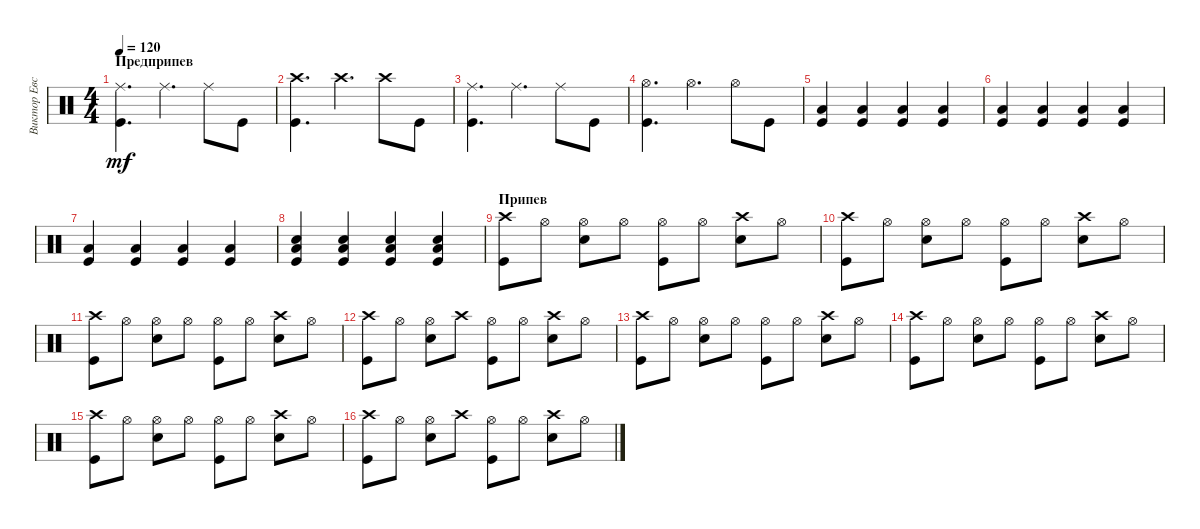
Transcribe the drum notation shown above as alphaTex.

\track ("Виктор Евстратов" "Виктор Евс") {instrument percussion}
\staff {score}
\articulation defaults
\ts (4 4)
\section ("" "Предприпев")
\tempo 120
\clef neutral
\ks c
("Ride (middle)" "Kick (hit)").4{d dy mf} "Ride (middle)".4{d} "Ride (middle)".8 "Kick (hit)".8 |
("Kick (hit)" "Crash high (hit)").4{d} "Crash high (hit)".4{d} "Crash high (hit)".8 "Kick (hit)".8 |
("Ride (middle)" "Kick (hit)").4{d} "Ride (middle)".4{d} "Ride (middle)".8 "Kick (hit)".8 |
("Kick (hit)" "Hi-Hat (open)").4{d} "Hi-Hat (open)".4{d} "Hi-Hat (open)".8 "Kick (hit)".8 |
("Kick (hit)" "Low Floor Tom (hit)").4 ("Kick (hit)" "Low Floor Tom (hit)").4 ("Kick (hit)" "Low Floor Tom (hit)").4 ("Kick (hit)" "Low Floor Tom (hit)").4 |
("Kick (hit)" "Low Floor Tom (hit)").4 ("Kick (hit)" "Low Floor Tom (hit)").4 ("Kick (hit)" "Low Floor Tom (hit)").4 ("Kick (hit)" "Low Floor Tom (hit)").4 |
("Kick (hit)" "Low Floor Tom (hit)").4 ("Kick (hit)" "Low Floor Tom (hit)").4 ("Kick (hit)" "Low Floor Tom (hit)").4 ("Kick (hit)" "Low Floor Tom (hit)").4 |
("Kick (hit)" "Low Floor Tom (hit)" "Snare (hit) 2").4 ("Kick (hit)" "Low Floor Tom (hit)" "Snare (hit) 2").4 ("Kick (hit)" "Low Floor Tom (hit)" "Snare (hit) 2").4 ("Kick (hit)" "Low Floor Tom (hit)" "Snare (hit) 2").4 |
\section ("" "Припев")
("Kick (hit)" "Crash high (hit)").8 "Hi-Hat (open)".8 ("Snare (hit) 2" "Hi-Hat (open)").8 "Hi-Hat (open)".8 ("Kick (hit)" "Hi-Hat (open)").8 "Hi-Hat (open)".8 ("Snare (hit) 2" "Crash high (hit)").8 "Hi-Hat (open)".8 |
("Kick (hit)" "Crash high (hit)").8 "Hi-Hat (open)".8 ("Snare (hit) 2" "Hi-Hat (open)").8 "Hi-Hat (open)".8 ("Kick (hit)" "Hi-Hat (open)").8 "Hi-Hat (open)".8 ("Snare (hit) 2" "Crash high (hit)").8 "Hi-Hat (open)".8 |
("Kick (hit)" "Crash high (hit)").8 "Hi-Hat (open)".8 ("Snare (hit) 2" "Hi-Hat (open)").8 "Hi-Hat (open)".8 ("Kick (hit)" "Hi-Hat (open)").8 "Hi-Hat (open)".8 ("Snare (hit) 2" "Crash high (hit)").8 "Hi-Hat (open)".8 |
("Kick (hit)" "Crash high (hit)").8 "Hi-Hat (open)".8 ("Snare (hit) 2" "Hi-Hat (open)").8 "Crash high (hit)".8 ("Kick (hit)" "Hi-Hat (open)").8 "Hi-Hat (open)".8 ("Snare (hit) 2" "Crash high (hit)").8 "Hi-Hat (open)".8 |
("Kick (hit)" "Crash high (hit)").8 "Hi-Hat (open)".8 ("Snare (hit) 2" "Hi-Hat (open)").8 "Hi-Hat (open)".8 ("Kick (hit)" "Hi-Hat (open)").8 "Hi-Hat (open)".8 ("Snare (hit) 2" "Crash high (hit)").8 "Hi-Hat (open)".8 |
("Kick (hit)" "Crash high (hit)").8 "Hi-Hat (open)".8 ("Snare (hit) 2" "Hi-Hat (open)").8 "Hi-Hat (open)".8 ("Kick (hit)" "Hi-Hat (open)").8 "Hi-Hat (open)".8 ("Snare (hit) 2" "Crash high (hit)").8 "Hi-Hat (open)".8 |
("Kick (hit)" "Crash high (hit)").8 "Hi-Hat (open)".8 ("Snare (hit) 2" "Hi-Hat (open)").8 "Hi-Hat (open)".8 ("Kick (hit)" "Hi-Hat (open)").8 "Hi-Hat (open)".8 ("Snare (hit) 2" "Crash high (hit)").8 "Hi-Hat (open)".8 |
("Kick (hit)" "Crash high (hit)").8 "Hi-Hat (open)".8 ("Snare (hit) 2" "Hi-Hat (open)").8 "Crash high (hit)".8 ("Kick (hit)" "Hi-Hat (open)").8 "Hi-Hat (open)".8 ("Snare (hit) 2" "Crash high (hit)").8 "Hi-Hat (open)".8
